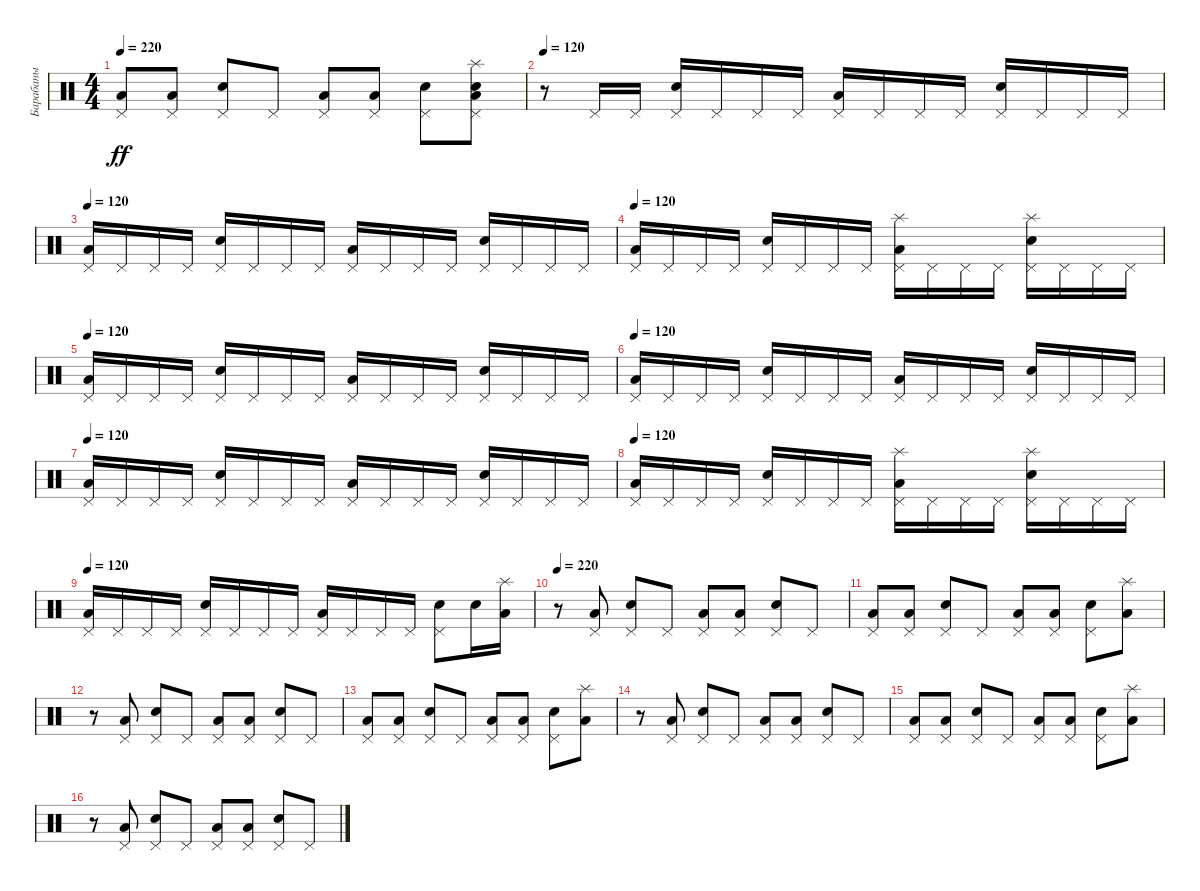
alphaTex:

\track ("Барабаны" "Барабаны") {instrument percussion}
\staff {score}
\articulation defaults
\ts (4 4)
\tempo 220
\clef neutral
\ks c
("Low Floor Tom (hit)" "Pedal Hi-Hat (hit)").8{dy ff} ("Low Floor Tom (hit)" "Pedal Hi-Hat (hit)").8 ("Electric Snare (hit)" "Pedal Hi-Hat (hit)").8 "Pedal Hi-Hat (hit)".8 ("Low Floor Tom (hit)" "Pedal Hi-Hat (hit)").8 ("Low Floor Tom (hit)" "Pedal Hi-Hat (hit)").8 ("Electric Snare (hit)" "Pedal Hi-Hat (hit)").8 ("Electric Snare (hit)" "Low Floor Tom (hit)" "Pedal Hi-Hat (hit)" "Splash (hit)").8 |
\tempo 120
r.8 "Pedal Hi-Hat (hit)".16 "Pedal Hi-Hat (hit)".16 ("Electric Snare (hit)" "Pedal Hi-Hat (hit)").16 "Pedal Hi-Hat (hit)".16 "Pedal Hi-Hat (hit)".16 "Pedal Hi-Hat (hit)".16 ("Low Floor Tom (hit)" "Pedal Hi-Hat (hit)").16 "Pedal Hi-Hat (hit)".16 "Pedal Hi-Hat (hit)".16 "Pedal Hi-Hat (hit)".16 ("Electric Snare (hit)" "Pedal Hi-Hat (hit)").16 "Pedal Hi-Hat (hit)".16 "Pedal Hi-Hat (hit)".16 "Pedal Hi-Hat (hit)".16 |
\tempo 120
("Low Floor Tom (hit)" "Pedal Hi-Hat (hit)").16 "Pedal Hi-Hat (hit)".16 "Pedal Hi-Hat (hit)".16 "Pedal Hi-Hat (hit)".16 ("Electric Snare (hit)" "Pedal Hi-Hat (hit)").16 "Pedal Hi-Hat (hit)".16 "Pedal Hi-Hat (hit)".16 "Pedal Hi-Hat (hit)".16 ("Low Floor Tom (hit)" "Pedal Hi-Hat (hit)").16 "Pedal Hi-Hat (hit)".16 "Pedal Hi-Hat (hit)".16 "Pedal Hi-Hat (hit)".16 ("Electric Snare (hit)" "Pedal Hi-Hat (hit)").16 "Pedal Hi-Hat (hit)".16 "Pedal Hi-Hat (hit)".16 "Pedal Hi-Hat (hit)".16 |
\tempo 120
("Low Floor Tom (hit)" "Pedal Hi-Hat (hit)").16 "Pedal Hi-Hat (hit)".16 "Pedal Hi-Hat (hit)".16 "Pedal Hi-Hat (hit)".16 ("Electric Snare (hit)" "Pedal Hi-Hat (hit)").16 "Pedal Hi-Hat (hit)".16 "Pedal Hi-Hat (hit)".16 "Pedal Hi-Hat (hit)".16 ("Low Floor Tom (hit)" "Pedal Hi-Hat (hit)" "Splash (hit)").16 "Pedal Hi-Hat (hit)".16 "Pedal Hi-Hat (hit)".16 "Pedal Hi-Hat (hit)".16 ("Electric Snare (hit)" "Pedal Hi-Hat (hit)" "Splash (hit)").16 "Pedal Hi-Hat (hit)".16 "Pedal Hi-Hat (hit)".16 "Pedal Hi-Hat (hit)".16 |
\tempo 120
("Low Floor Tom (hit)" "Pedal Hi-Hat (hit)").16 "Pedal Hi-Hat (hit)".16 "Pedal Hi-Hat (hit)".16 "Pedal Hi-Hat (hit)".16 ("Electric Snare (hit)" "Pedal Hi-Hat (hit)").16 "Pedal Hi-Hat (hit)".16 "Pedal Hi-Hat (hit)".16 "Pedal Hi-Hat (hit)".16 ("Low Floor Tom (hit)" "Pedal Hi-Hat (hit)").16 "Pedal Hi-Hat (hit)".16 "Pedal Hi-Hat (hit)".16 "Pedal Hi-Hat (hit)".16 ("Electric Snare (hit)" "Pedal Hi-Hat (hit)").16 "Pedal Hi-Hat (hit)".16 "Pedal Hi-Hat (hit)".16 "Pedal Hi-Hat (hit)".16 |
\tempo 120
("Low Floor Tom (hit)" "Pedal Hi-Hat (hit)").16 "Pedal Hi-Hat (hit)".16 "Pedal Hi-Hat (hit)".16 "Pedal Hi-Hat (hit)".16 ("Electric Snare (hit)" "Pedal Hi-Hat (hit)").16 "Pedal Hi-Hat (hit)".16 "Pedal Hi-Hat (hit)".16 "Pedal Hi-Hat (hit)".16 ("Low Floor Tom (hit)" "Pedal Hi-Hat (hit)").16 "Pedal Hi-Hat (hit)".16 "Pedal Hi-Hat (hit)".16 "Pedal Hi-Hat (hit)".16 ("Electric Snare (hit)" "Pedal Hi-Hat (hit)").16 "Pedal Hi-Hat (hit)".16 "Pedal Hi-Hat (hit)".16 "Pedal Hi-Hat (hit)".16 |
\tempo 120
("Low Floor Tom (hit)" "Pedal Hi-Hat (hit)").16 "Pedal Hi-Hat (hit)".16 "Pedal Hi-Hat (hit)".16 "Pedal Hi-Hat (hit)".16 ("Electric Snare (hit)" "Pedal Hi-Hat (hit)").16 "Pedal Hi-Hat (hit)".16 "Pedal Hi-Hat (hit)".16 "Pedal Hi-Hat (hit)".16 ("Low Floor Tom (hit)" "Pedal Hi-Hat (hit)").16 "Pedal Hi-Hat (hit)".16 "Pedal Hi-Hat (hit)".16 "Pedal Hi-Hat (hit)".16 ("Electric Snare (hit)" "Pedal Hi-Hat (hit)").16 "Pedal Hi-Hat (hit)".16 "Pedal Hi-Hat (hit)".16 "Pedal Hi-Hat (hit)".16 |
\tempo 120
("Low Floor Tom (hit)" "Pedal Hi-Hat (hit)").16 "Pedal Hi-Hat (hit)".16 "Pedal Hi-Hat (hit)".16 "Pedal Hi-Hat (hit)".16 ("Electric Snare (hit)" "Pedal Hi-Hat (hit)").16 "Pedal Hi-Hat (hit)".16 "Pedal Hi-Hat (hit)".16 "Pedal Hi-Hat (hit)".16 ("Low Floor Tom (hit)" "Pedal Hi-Hat (hit)" "Splash (hit)").16 "Pedal Hi-Hat (hit)".16 "Pedal Hi-Hat (hit)".16 "Pedal Hi-Hat (hit)".16 ("Electric Snare (hit)" "Pedal Hi-Hat (hit)" "Splash (hit)").16 "Pedal Hi-Hat (hit)".16 "Pedal Hi-Hat (hit)".16 "Pedal Hi-Hat (hit)".16 |
\tempo 120
("Low Floor Tom (hit)" "Pedal Hi-Hat (hit)").16 "Pedal Hi-Hat (hit)".16 "Pedal Hi-Hat (hit)".16 "Pedal Hi-Hat (hit)".16 ("Electric Snare (hit)" "Pedal Hi-Hat (hit)").16 "Pedal Hi-Hat (hit)".16 "Pedal Hi-Hat (hit)".16 "Pedal Hi-Hat (hit)".16 ("Low Floor Tom (hit)" "Pedal Hi-Hat (hit)").16 "Pedal Hi-Hat (hit)".16 "Pedal Hi-Hat (hit)".16 "Pedal Hi-Hat (hit)".16 ("Electric Snare (hit)" "Pedal Hi-Hat (hit)").8 "Electric Snare (hit)".16 ("Low Floor Tom (hit)" "Splash (hit)").16 |
\tempo 220
r.8 ("Low Floor Tom (hit)" "Pedal Hi-Hat (hit)").8 ("Electric Snare (hit)" "Pedal Hi-Hat (hit)").8 "Pedal Hi-Hat (hit)".8 ("Low Floor Tom (hit)" "Pedal Hi-Hat (hit)").8 ("Low Floor Tom (hit)" "Pedal Hi-Hat (hit)").8 ("Electric Snare (hit)" "Pedal Hi-Hat (hit)").8 "Pedal Hi-Hat (hit)".8 |
("Low Floor Tom (hit)" "Pedal Hi-Hat (hit)").8 ("Low Floor Tom (hit)" "Pedal Hi-Hat (hit)").8 ("Electric Snare (hit)" "Pedal Hi-Hat (hit)").8 "Pedal Hi-Hat (hit)".8 ("Low Floor Tom (hit)" "Pedal Hi-Hat (hit)").8 ("Low Floor Tom (hit)" "Pedal Hi-Hat (hit)").8 ("Electric Snare (hit)" "Pedal Hi-Hat (hit)").8 ("Low Floor Tom (hit)" "Splash (hit)").8 |
r.8 ("Low Floor Tom (hit)" "Pedal Hi-Hat (hit)").8 ("Electric Snare (hit)" "Pedal Hi-Hat (hit)").8 "Pedal Hi-Hat (hit)".8 ("Low Floor Tom (hit)" "Pedal Hi-Hat (hit)").8 ("Low Floor Tom (hit)" "Pedal Hi-Hat (hit)").8 ("Electric Snare (hit)" "Pedal Hi-Hat (hit)").8 "Pedal Hi-Hat (hit)".8 |
("Low Floor Tom (hit)" "Pedal Hi-Hat (hit)").8 ("Low Floor Tom (hit)" "Pedal Hi-Hat (hit)").8 ("Electric Snare (hit)" "Pedal Hi-Hat (hit)").8 "Pedal Hi-Hat (hit)".8 ("Low Floor Tom (hit)" "Pedal Hi-Hat (hit)").8 ("Low Floor Tom (hit)" "Pedal Hi-Hat (hit)").8 ("Electric Snare (hit)" "Pedal Hi-Hat (hit)").8 ("Low Floor Tom (hit)" "Splash (hit)").8 |
r.8 ("Low Floor Tom (hit)" "Pedal Hi-Hat (hit)").8 ("Electric Snare (hit)" "Pedal Hi-Hat (hit)").8 "Pedal Hi-Hat (hit)".8 ("Low Floor Tom (hit)" "Pedal Hi-Hat (hit)").8 ("Low Floor Tom (hit)" "Pedal Hi-Hat (hit)").8 ("Electric Snare (hit)" "Pedal Hi-Hat (hit)").8 "Pedal Hi-Hat (hit)".8 |
("Low Floor Tom (hit)" "Pedal Hi-Hat (hit)").8 ("Low Floor Tom (hit)" "Pedal Hi-Hat (hit)").8 ("Electric Snare (hit)" "Pedal Hi-Hat (hit)").8 "Pedal Hi-Hat (hit)".8 ("Low Floor Tom (hit)" "Pedal Hi-Hat (hit)").8 ("Low Floor Tom (hit)" "Pedal Hi-Hat (hit)").8 ("Electric Snare (hit)" "Pedal Hi-Hat (hit)").8 ("Low Floor Tom (hit)" "Splash (hit)").8 |
r.8 ("Low Floor Tom (hit)" "Pedal Hi-Hat (hit)").8 ("Electric Snare (hit)" "Pedal Hi-Hat (hit)").8 "Pedal Hi-Hat (hit)".8 ("Low Floor Tom (hit)" "Pedal Hi-Hat (hit)").8 ("Low Floor Tom (hit)" "Pedal Hi-Hat (hit)").8 ("Electric Snare (hit)" "Pedal Hi-Hat (hit)").8 "Pedal Hi-Hat (hit)".8
